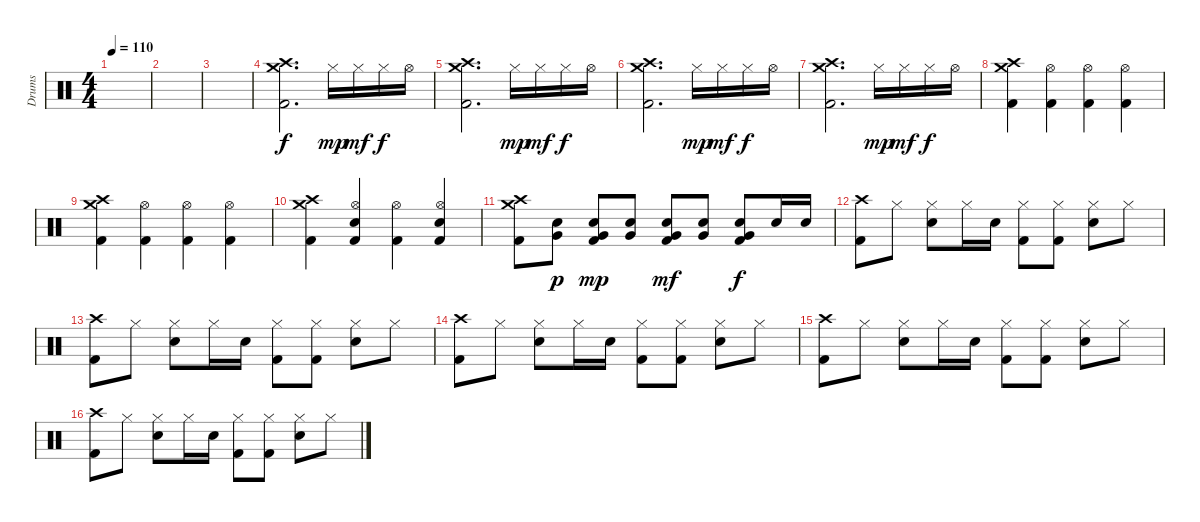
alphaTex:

\track ("Drums" "Drums") {instrument percussion}
\staff {score}
\articulation defaults
\ts (4 4)
\tempo 110
\clef neutral
\ks c
|
|
|
("Crash high (hit)" "Crash medium (hit)" "Kick (hit) 2").2{d} "Hi-Hat (closed)".16{dy mp} "Hi-Hat (closed)".16{dy mf} "Hi-Hat (closed)".16{dy f} "Hi-Hat (open)".16 |
("Crash high (hit)" "Crash medium (hit)" "Kick (hit) 2").2{d} "Hi-Hat (closed)".16{dy mp} "Hi-Hat (closed)".16{dy mf} "Hi-Hat (closed)".16{dy f} "Hi-Hat (open)".16 |
("Crash high (hit)" "Crash medium (hit)" "Kick (hit) 2").2{d} "Hi-Hat (closed)".16{dy mp} "Hi-Hat (closed)".16{dy mf} "Hi-Hat (closed)".16{dy f} "Hi-Hat (open)".16 |
("Crash high (hit)" "Crash medium (hit)" "Kick (hit) 2").2{d} "Hi-Hat (closed)".16{dy mp} "Hi-Hat (closed)".16{dy mf} "Hi-Hat (closed)".16{dy f} "Hi-Hat (open)".16 |
("Crash high (hit)" "Crash medium (hit)" "Kick (hit) 2").4 ("Hi-Hat (open)" "Kick (hit) 2").4 ("Hi-Hat (open)" "Kick (hit) 2").4 ("Hi-Hat (open)" "Kick (hit) 2").4 |
("Crash high (hit)" "Crash medium (hit)" "Kick (hit) 2").4 ("Hi-Hat (open)" "Kick (hit) 2").4 ("Hi-Hat (open)" "Kick (hit) 2").4 ("Hi-Hat (open)" "Kick (hit) 2").4 |
("Crash high (hit)" "Crash medium (hit)" "Kick (hit) 2").4 ("Hi-Hat (open)" "Snare (hit) 2" "Kick (hit) 2").4 ("Hi-Hat (open)" "Kick (hit) 2").4 ("Hi-Hat (open)" "Snare (hit) 2" "Kick (hit) 2").4 |
("Crash high (hit)" "Crash medium (hit)" "Kick (hit) 2").8 ("Very Low Tom (hit)" "Snare (hit) 2").8{dy p} ("Very Low Tom (hit)" "Snare (hit) 2" "Kick (hit) 2").8{dy mp} ("Very Low Tom (hit)" "Snare (hit) 2").8 ("Very Low Tom (hit)" "Snare (hit) 2" "Kick (hit) 2").8{dy mf} ("Very Low Tom (hit)" "Snare (hit) 2").8 ("Very Low Tom (hit)" "Snare (hit) 2" "Kick (hit) 2").8{dy f} "Snare (hit) 2".16 "Snare (hit) 2".16 |
("Crash high (hit)" "Kick (hit) 2").8 "Hi-Hat (closed)".8 ("Hi-Hat (closed)" "Snare (hit) 2").8 "Hi-Hat (closed)".16 "Snare (hit) 2".16 ("Hi-Hat (closed)" "Kick (hit) 2").8 ("Hi-Hat (closed)" "Kick (hit) 2").8 ("Hi-Hat (closed)" "Snare (hit) 2").8 "Hi-Hat (closed)".8 |
("Crash high (hit)" "Kick (hit) 2").8 "Hi-Hat (closed)".8 ("Hi-Hat (closed)" "Snare (hit) 2").8 "Hi-Hat (closed)".16 "Snare (hit) 2".16 ("Hi-Hat (closed)" "Kick (hit) 2").8 ("Hi-Hat (closed)" "Kick (hit) 2").8 ("Hi-Hat (closed)" "Snare (hit) 2").8 "Hi-Hat (closed)".8 |
("Crash high (hit)" "Kick (hit) 2").8 "Hi-Hat (closed)".8 ("Hi-Hat (closed)" "Snare (hit) 2").8 "Hi-Hat (closed)".16 "Snare (hit) 2".16 ("Hi-Hat (closed)" "Kick (hit) 2").8 ("Hi-Hat (closed)" "Kick (hit) 2").8 ("Hi-Hat (closed)" "Snare (hit) 2").8 "Hi-Hat (closed)".8 |
("Crash high (hit)" "Kick (hit) 2").8 "Hi-Hat (closed)".8 ("Hi-Hat (closed)" "Snare (hit) 2").8 "Hi-Hat (closed)".16 "Snare (hit) 2".16 ("Hi-Hat (closed)" "Kick (hit) 2").8 ("Hi-Hat (closed)" "Kick (hit) 2").8 ("Hi-Hat (closed)" "Snare (hit) 2").8 "Hi-Hat (closed)".8 |
("Crash high (hit)" "Kick (hit) 2").8 "Hi-Hat (closed)".8 ("Hi-Hat (closed)" "Snare (hit) 2").8 "Hi-Hat (closed)".16 "Snare (hit) 2".16 ("Hi-Hat (closed)" "Kick (hit) 2").8 ("Hi-Hat (closed)" "Kick (hit) 2").8 ("Hi-Hat (closed)" "Snare (hit) 2").8 "Hi-Hat (closed)".8
